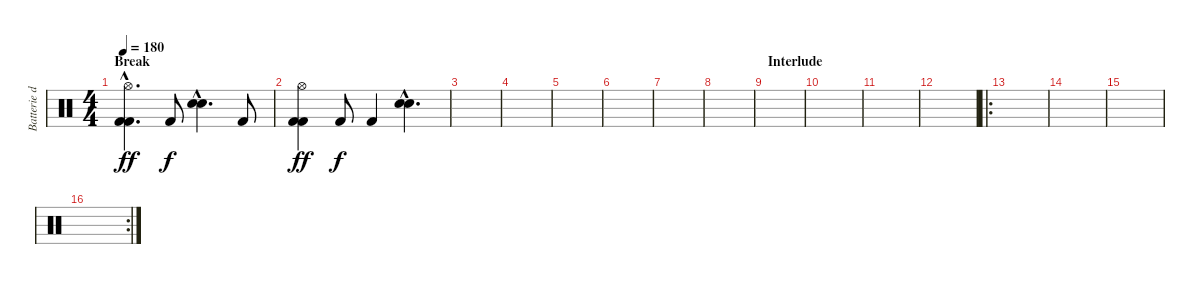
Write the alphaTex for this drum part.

\track ("Batterie début" "Batterie d") {instrument percussion}
\staff {score}
\articulation defaults
\ts (4 4)
\section ("" "Break")
\tempo 180
\clef neutral
\ks c
("Hi-Hat (open)"{hac} "Kick (hit) 2"{hac} "Kick (hit) 2"{hac}).4{d dy ff volume 16 balance 8} "Kick (hit) 2".8{dy f} ("Electric Snare (hit)"{hac} "Electric Snare (hit)"{hac}).4{d} "Kick (hit) 2".8 |
("Hi-Hat (open)" "Kick (hit) 2" "Kick (hit) 2").4{dy ff} "Kick (hit) 2".8{dy f} "Kick (hit) 2".4 ("Electric Snare (hit)"{hac} "Electric Snare (hit)"{hac}).4{d} |
|
|
|
|
|
|
\section ("" "Interlude")
|
|
|
|
\ro
|
|
|
\rc 2
